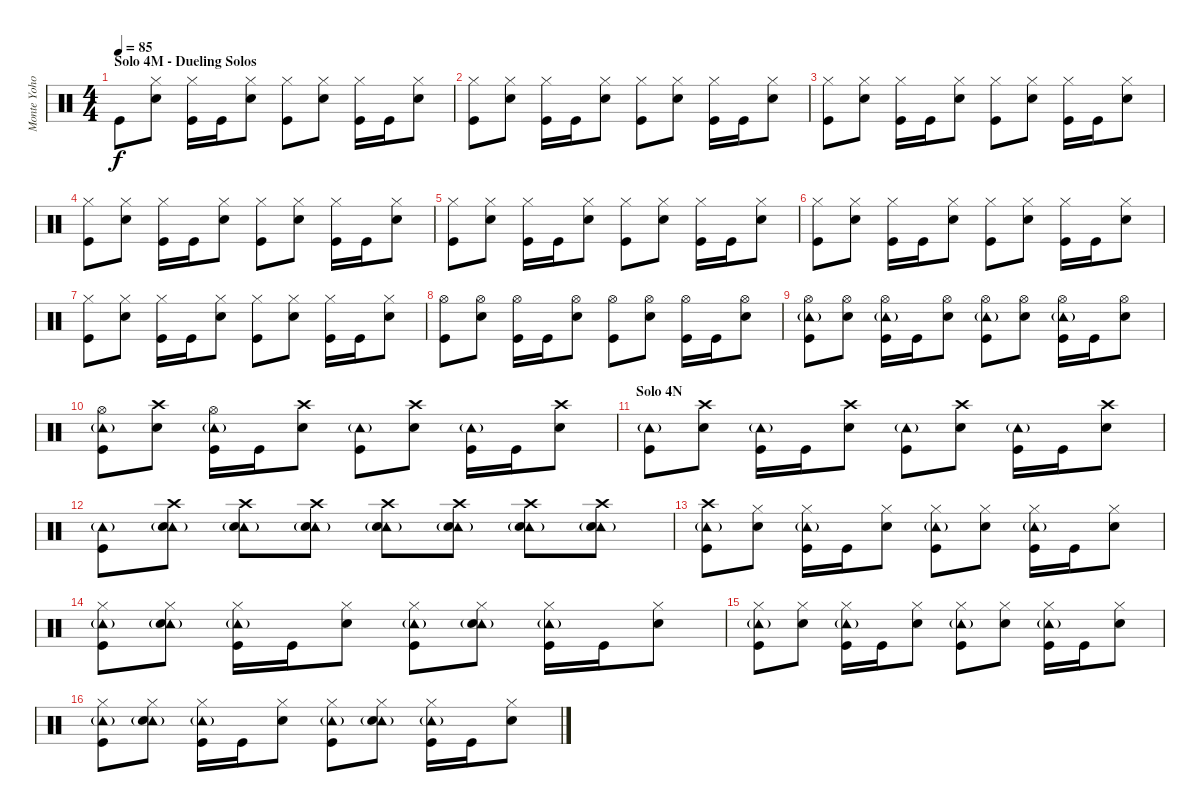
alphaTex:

\track ("Monte Yoho - Drums" "Monte Yoho") {instrument percussion}
\staff {score}
\articulation defaults
\ts (4 4)
\section ("" "Solo 4M - Dueling Solos")
\tempo 85
\clef neutral
\ks c "Kick (hit)".8{dy f}
("Hi-Hat (closed)" "Snare (hit) 2").8 ("Hi-Hat (closed)" "Kick (hit)").16 "Kick (hit)".16 ("Hi-Hat (closed)" "Snare (hit) 2").8 ("Hi-Hat (closed)" "Kick (hit)").8 ("Hi-Hat (closed)" "Snare (hit) 2").8 ("Hi-Hat (closed)" "Kick (hit)").16 "Kick (hit)".16 ("Hi-Hat (closed)" "Snare (hit) 2").8 |
("Hi-Hat (closed)" "Kick (hit)").8 ("Hi-Hat (closed)" "Snare (hit) 2").8 ("Hi-Hat (closed)" "Kick (hit)").16 "Kick (hit)".16 ("Hi-Hat (closed)" "Snare (hit) 2").8 ("Hi-Hat (closed)" "Kick (hit)").8 ("Hi-Hat (closed)" "Snare (hit) 2").8 ("Hi-Hat (closed)" "Kick (hit)").16 "Kick (hit)".16 ("Hi-Hat (closed)" "Snare (hit) 2").8 |
("Hi-Hat (closed)" "Kick (hit)").8 ("Hi-Hat (closed)" "Snare (hit) 2").8 ("Hi-Hat (closed)" "Kick (hit)").16 "Kick (hit)".16 ("Hi-Hat (closed)" "Snare (hit) 2").8 ("Hi-Hat (closed)" "Kick (hit)").8 ("Hi-Hat (closed)" "Snare (hit) 2").8 ("Hi-Hat (closed)" "Kick (hit)").16 "Kick (hit)".16 ("Hi-Hat (closed)" "Snare (hit) 2").8 |
("Hi-Hat (closed)" "Kick (hit)").8 ("Hi-Hat (closed)" "Snare (hit) 2").8 ("Hi-Hat (closed)" "Kick (hit)").16 "Kick (hit)".16 ("Hi-Hat (closed)" "Snare (hit) 2").8 ("Hi-Hat (closed)" "Kick (hit)").8 ("Hi-Hat (closed)" "Snare (hit) 2").8 ("Hi-Hat (closed)" "Kick (hit)").16 "Kick (hit)".16 ("Hi-Hat (closed)" "Snare (hit) 2").8 |
("Hi-Hat (closed)" "Kick (hit)").8 ("Hi-Hat (closed)" "Snare (hit) 2").8 ("Hi-Hat (closed)" "Kick (hit)").16 "Kick (hit)".16 ("Hi-Hat (closed)" "Snare (hit) 2").8 ("Hi-Hat (closed)" "Kick (hit)").8 ("Hi-Hat (closed)" "Snare (hit) 2").8 ("Hi-Hat (closed)" "Kick (hit)").16 "Kick (hit)".16 ("Hi-Hat (closed)" "Snare (hit) 2").8 |
("Hi-Hat (closed)" "Kick (hit)").8 ("Hi-Hat (closed)" "Snare (hit) 2").8 ("Hi-Hat (closed)" "Kick (hit)").16 "Kick (hit)".16 ("Hi-Hat (closed)" "Snare (hit) 2").8 ("Hi-Hat (closed)" "Kick (hit)").8 ("Hi-Hat (closed)" "Snare (hit) 2").8 ("Hi-Hat (closed)" "Kick (hit)").16 "Kick (hit)".16 ("Hi-Hat (closed)" "Snare (hit) 2").8 |
("Hi-Hat (closed)" "Kick (hit)").8 ("Hi-Hat (closed)" "Snare (hit) 2").8 ("Hi-Hat (closed)" "Kick (hit)").16 "Kick (hit)".16 ("Hi-Hat (closed)" "Snare (hit) 2").8 ("Hi-Hat (closed)" "Kick (hit)").8 ("Hi-Hat (closed)" "Snare (hit) 2").8 ("Hi-Hat (closed)" "Kick (hit)").16 "Kick (hit)".16 ("Hi-Hat (closed)" "Snare (hit) 2").8 |
("Hi-Hat (open)" "Kick (hit)").8 ("Hi-Hat (open)" "Snare (hit) 2").8 ("Hi-Hat (open)" "Kick (hit)").16 "Kick (hit)".16 ("Hi-Hat (open)" "Snare (hit) 2").8 ("Hi-Hat (open)" "Kick (hit)").8 ("Hi-Hat (open)" "Snare (hit) 2").8 ("Hi-Hat (open)" "Kick (hit)").16 "Kick (hit)".16 ("Hi-Hat (open)" "Snare (hit) 2").8 |
("Hi-Hat (open)" "Tambourine (hit)"{g} "Kick (hit)").8 ("Hi-Hat (open)" "Snare (hit) 2").8 ("Hi-Hat (open)" "Tambourine (hit)"{g} "Kick (hit)").16 "Kick (hit)".16 ("Hi-Hat (open)" "Snare (hit) 2").8 ("Hi-Hat (open)" "Tambourine (hit)"{g} "Kick (hit)").8 ("Hi-Hat (open)" "Snare (hit) 2").8 ("Hi-Hat (open)" "Tambourine (hit)"{g} "Kick (hit)").16 "Kick (hit)".16 ("Hi-Hat (open)" "Snare (hit) 2").8 |
("Hi-Hat (open)" "Tambourine (hit)"{g} "Kick (hit)").8 ("Crash high (hit)" "Snare (hit) 2").8 ("Hi-Hat (open)" "Tambourine (hit)"{g} "Kick (hit)").16 "Kick (hit)".16 ("Crash high (hit)" "Snare (hit) 2").8 ("Tambourine (hit)"{g} "Kick (hit)").8 ("Crash high (hit)" "Snare (hit) 2").8 ("Tambourine (hit)"{g} "Kick (hit)").16 "Kick (hit)".16 ("Crash high (hit)" "Snare (hit) 2").8 |
\section ("" "Solo 4N")
("Tambourine (hit)"{g} "Kick (hit)").8 ("Crash high (hit)" "Snare (hit) 2").8 ("Tambourine (hit)"{g} "Kick (hit)").16 "Kick (hit)".16 ("Crash high (hit)" "Snare (hit) 2").8 ("Tambourine (hit)"{g} "Kick (hit)").8 ("Crash high (hit)" "Snare (hit) 2").8 ("Tambourine (hit)"{g} "Kick (hit)").16 "Kick (hit)".16 ("Crash high (hit)" "Snare (hit) 2").8 |
("Tambourine (hit)"{g} "Kick (hit)").8 ("Crash high (hit)" "Tambourine (hit)"{g} "Snare (hit) 2").8 ("Crash high (hit)" "Tambourine (hit)"{g} "Snare (hit) 2").8 ("Crash high (hit)" "Tambourine (hit)"{g} "Snare (hit) 2").8 ("Crash high (hit)" "Tambourine (hit)"{g} "Snare (hit) 2").8 ("Crash high (hit)" "Tambourine (hit)"{g} "Snare (hit) 2").8 ("Crash high (hit)" "Tambourine (hit)"{g} "Snare (hit) 2").8 ("Crash high (hit)" "Tambourine (hit)"{g} "Snare (hit) 2").8 |
("Crash high (hit)" "Tambourine (hit)"{g} "Kick (hit)").8 ("Hi-Hat (closed)" "Snare (hit) 2").8 ("Hi-Hat (closed)" "Tambourine (hit)"{g} "Kick (hit)").16 "Kick (hit)".16 ("Hi-Hat (closed)" "Snare (hit) 2").8 ("Hi-Hat (closed)" "Tambourine (hit)"{g} "Kick (hit)").8 ("Hi-Hat (closed)" "Snare (hit) 2").8 ("Hi-Hat (closed)" "Tambourine (hit)"{g} "Kick (hit)").16 "Kick (hit)".16 ("Hi-Hat (closed)" "Snare (hit) 2").8 |
("Hi-Hat (closed)" "Tambourine (hit)"{g} "Kick (hit)").8 ("Hi-Hat (closed)" "Tambourine (hit)"{g} "Snare (hit) 2").8 ("Hi-Hat (closed)" "Tambourine (hit)"{g} "Kick (hit)").16 "Kick (hit)".16 ("Hi-Hat (closed)" "Snare (hit) 2").8 ("Hi-Hat (closed)" "Tambourine (hit)"{g} "Kick (hit)").8 ("Hi-Hat (closed)" "Tambourine (hit)"{g} "Snare (hit) 2").8 ("Hi-Hat (closed)" "Tambourine (hit)"{g} "Kick (hit)").16 "Kick (hit)".16 ("Hi-Hat (closed)" "Snare (hit) 2").8 |
("Hi-Hat (closed)" "Tambourine (hit)"{g} "Kick (hit)").8 ("Hi-Hat (closed)" "Snare (hit) 2").8 ("Hi-Hat (closed)" "Tambourine (hit)"{g} "Kick (hit)").16 "Kick (hit)".16 ("Hi-Hat (closed)" "Snare (hit) 2").8 ("Hi-Hat (closed)" "Tambourine (hit)"{g} "Kick (hit)").8 ("Hi-Hat (closed)" "Snare (hit) 2").8 ("Hi-Hat (closed)" "Tambourine (hit)"{g} "Kick (hit)").16 "Kick (hit)".16 ("Hi-Hat (closed)" "Snare (hit) 2").8 |
("Hi-Hat (closed)" "Tambourine (hit)"{g} "Kick (hit)").8 ("Hi-Hat (closed)" "Tambourine (hit)"{g} "Snare (hit) 2").8 ("Hi-Hat (closed)" "Tambourine (hit)"{g} "Kick (hit)").16 "Kick (hit)".16 ("Hi-Hat (closed)" "Snare (hit) 2").8 ("Hi-Hat (closed)" "Tambourine (hit)"{g} "Kick (hit)").8 ("Hi-Hat (closed)" "Tambourine (hit)"{g} "Snare (hit) 2").8 ("Hi-Hat (closed)" "Tambourine (hit)"{g} "Kick (hit)").16 "Kick (hit)".16 ("Hi-Hat (closed)" "Snare (hit) 2").8
